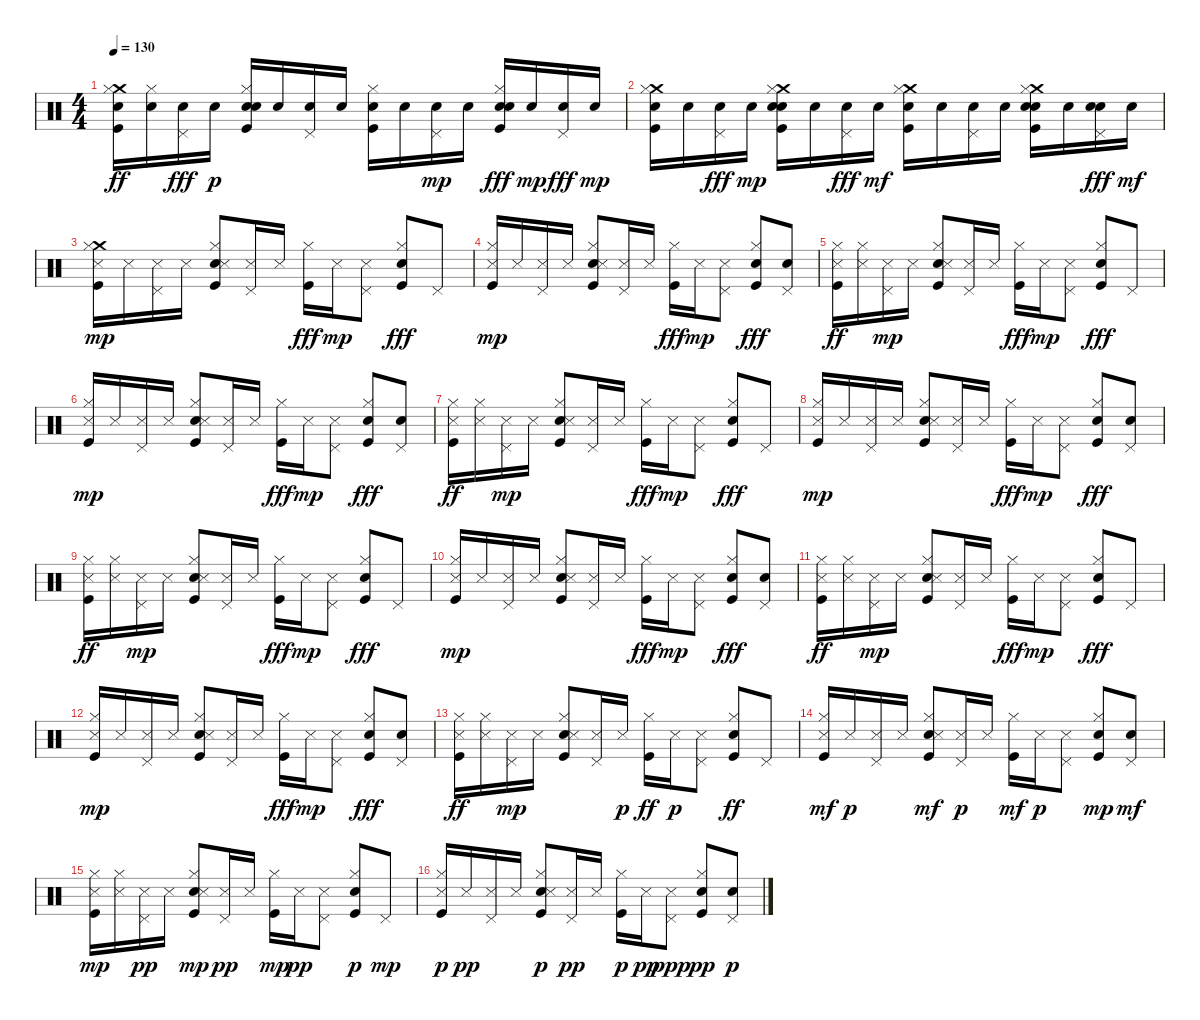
\track "" {instrument percussion}
\staff {score}
\articulation defaults
\ts (4 4)
\tempo 130
\clef neutral
\ks c
("Crash medium (hit)" "Kick (hit)" "Electric Snare (hit)" "Hi-Hat (closed)").16{dy ff} ("Electric Snare (hit)" "Hi-Hat (closed)").16 ("Electric Snare (hit)" "Pedal Hi-Hat (hit)").16{dy fff} "Electric Snare (hit)".16{dy p} ("Hand Clap (hit)" "Kick (hit)" "Electric Snare (hit)" "Hi-Hat (closed)").16 "Electric Snare (hit)".16 ("Pedal Hi-Hat (hit)" "Electric Snare (hit)").16 "Electric Snare (hit)".16 ("Kick (hit)" "Electric Snare (hit)" "Hi-Hat (closed)").16 "Electric Snare (hit)".16 ("Pedal Hi-Hat (hit)" "Electric Snare (hit)").16{dy mp} "Electric Snare (hit)".16 ("Hand Clap (hit)" "Electric Snare (hit)" "Kick (hit)" "Hi-Hat (closed)").16{dy fff} "Electric Snare (hit)".16{dy mp} ("Electric Snare (hit)" "Pedal Hi-Hat (hit)").16{dy fff} "Electric Snare (hit)".16{dy mp} |
("Kick (hit)" "Electric Snare (hit)" "Crash medium (hit)" "Hi-Hat (closed)").16 "Electric Snare (hit)".16 ("Electric Snare (hit)" "Pedal Hi-Hat (hit)").16{dy fff} "Electric Snare (hit)".16{dy mp} ("Hand Clap (hit)" "Kick (hit)" "Crash medium (hit)" "Electric Snare (hit)" "Hi-Hat (closed)").16 "Electric Snare (hit)".16 ("Electric Snare (hit)" "Pedal Hi-Hat (hit)").16{dy fff} "Electric Snare (hit)".16{dy mf} ("Kick (hit)" "Electric Snare (hit)" "Crash medium (hit)" "Hi-Hat (closed)").16 "Electric Snare (hit)".16 ("Pedal Hi-Hat (hit)" "Electric Snare (hit)").16 "Electric Snare (hit)".16 ("Hand Clap (hit)" "Kick (hit)" "Crash medium (hit)" "Electric Snare (hit)" "Hi-Hat (closed)").16 "Electric Snare (hit)".16 ("Hand Clap (hit)" "Electric Snare (hit)" "Pedal Hi-Hat (hit)").16{dy fff} "Electric Snare (hit)".16{dy mf} |
("Crash medium (hit)" "Kick (hit)" "Snare (side stick) 3" "Hi-Hat (closed)").16{dy mp} "Snare (side stick) 3".16 ("Pedal Hi-Hat (hit)" "Snare (side stick) 3").16 "Snare (side stick) 3".16 ("Hand Clap (hit)" "Kick (hit)" "Snare (side stick) 3" "Hi-Hat (closed)").8 ("Pedal Hi-Hat (hit)" "Snare (side stick) 3").16 "Snare (side stick) 3".16 ("Kick (hit)" "Hi-Hat (closed)").16{dy fff} "Snare (side stick) 3".16{dy mp} ("Pedal Hi-Hat (hit)" "Snare (side stick) 3").8 ("Hand Clap (hit)" "Kick (hit)" "Hi-Hat (closed)").8{dy fff} "Pedal Hi-Hat (hit)".8 |
("Kick (hit)" "Snare (side stick) 3" "Hi-Hat (closed)").16{dy mp} "Snare (side stick) 3".16 ("Pedal Hi-Hat (hit)" "Snare (side stick) 3").16 "Snare (side stick) 3".16 ("Hand Clap (hit)" "Kick (hit)" "Snare (side stick) 3" "Hi-Hat (closed)").8 ("Pedal Hi-Hat (hit)" "Snare (side stick) 3").16 "Snare (side stick) 3".16 ("Kick (hit)" "Hi-Hat (closed)").16{dy fff} "Snare (side stick) 3".16{dy mp} ("Pedal Hi-Hat (hit)" "Snare (side stick) 3").8 ("Hand Clap (hit)" "Kick (hit)" "Hi-Hat (closed)").8{dy fff} ("Hand Clap (hit)" "Pedal Hi-Hat (hit)").8 |
("Kick (hit)" "Snare (side stick) 3" "Hi-Hat (closed)").16{dy ff} ("Snare (side stick) 3" "Hi-Hat (closed)").16 ("Pedal Hi-Hat (hit)" "Snare (side stick) 3").16{dy mp} "Snare (side stick) 3".16 ("Hand Clap (hit)" "Kick (hit)" "Snare (side stick) 3" "Hi-Hat (closed)").8 ("Pedal Hi-Hat (hit)" "Snare (side stick) 3").16 "Snare (side stick) 3".16 ("Kick (hit)" "Hi-Hat (closed)").16{dy fff} "Snare (side stick) 3".16{dy mp} ("Pedal Hi-Hat (hit)" "Snare (side stick) 3").8 ("Hand Clap (hit)" "Kick (hit)" "Hi-Hat (closed)").8{dy fff} "Pedal Hi-Hat (hit)".8 |
("Kick (hit)" "Snare (side stick) 3" "Hi-Hat (closed)").16{dy mp} "Snare (side stick) 3".16 ("Pedal Hi-Hat (hit)" "Snare (side stick) 3").16 "Snare (side stick) 3".16 ("Hand Clap (hit)" "Kick (hit)" "Snare (side stick) 3" "Hi-Hat (closed)").8 ("Pedal Hi-Hat (hit)" "Snare (side stick) 3").16 "Snare (side stick) 3".16 ("Kick (hit)" "Hi-Hat (closed)").16{dy fff} "Snare (side stick) 3".16{dy mp} ("Pedal Hi-Hat (hit)" "Snare (side stick) 3").8 ("Hand Clap (hit)" "Kick (hit)" "Hi-Hat (closed)").8{dy fff} ("Hand Clap (hit)" "Pedal Hi-Hat (hit)").8 |
("Kick (hit)" "Snare (side stick) 3" "Hi-Hat (closed)").16{dy ff} ("Snare (side stick) 3" "Hi-Hat (closed)").16 ("Pedal Hi-Hat (hit)" "Snare (side stick) 3").16{dy mp} "Snare (side stick) 3".16 ("Hand Clap (hit)" "Kick (hit)" "Snare (side stick) 3" "Hi-Hat (closed)").8 ("Pedal Hi-Hat (hit)" "Snare (side stick) 3").16 "Snare (side stick) 3".16 ("Kick (hit)" "Hi-Hat (closed)").16{dy fff} "Snare (side stick) 3".16{dy mp} ("Pedal Hi-Hat (hit)" "Snare (side stick) 3").8 ("Hand Clap (hit)" "Kick (hit)" "Hi-Hat (closed)").8{dy fff} "Pedal Hi-Hat (hit)".8 |
("Kick (hit)" "Snare (side stick) 3" "Hi-Hat (closed)").16{dy mp} "Snare (side stick) 3".16 ("Pedal Hi-Hat (hit)" "Snare (side stick) 3").16 "Snare (side stick) 3".16 ("Hand Clap (hit)" "Kick (hit)" "Snare (side stick) 3" "Hi-Hat (closed)").8 ("Pedal Hi-Hat (hit)" "Snare (side stick) 3").16 "Snare (side stick) 3".16 ("Kick (hit)" "Hi-Hat (closed)").16{dy fff} "Snare (side stick) 3".16{dy mp} ("Pedal Hi-Hat (hit)" "Snare (side stick) 3").8 ("Hand Clap (hit)" "Kick (hit)" "Hi-Hat (closed)").8{dy fff} ("Hand Clap (hit)" "Pedal Hi-Hat (hit)").8 |
("Kick (hit)" "Snare (side stick) 3" "Hi-Hat (closed)").16{dy ff} ("Snare (side stick) 3" "Hi-Hat (closed)").16 ("Pedal Hi-Hat (hit)" "Snare (side stick) 3").16{dy mp} "Snare (side stick) 3".16 ("Hand Clap (hit)" "Kick (hit)" "Snare (side stick) 3" "Hi-Hat (closed)").8 ("Pedal Hi-Hat (hit)" "Snare (side stick) 3").16 "Snare (side stick) 3".16 ("Kick (hit)" "Hi-Hat (closed)").16{dy fff} "Snare (side stick) 3".16{dy mp} ("Pedal Hi-Hat (hit)" "Snare (side stick) 3").8 ("Hand Clap (hit)" "Kick (hit)" "Hi-Hat (closed)").8{dy fff} "Pedal Hi-Hat (hit)".8 |
("Kick (hit)" "Snare (side stick) 3" "Hi-Hat (closed)").16{dy mp} "Snare (side stick) 3".16 ("Pedal Hi-Hat (hit)" "Snare (side stick) 3").16 "Snare (side stick) 3".16 ("Hand Clap (hit)" "Kick (hit)" "Snare (side stick) 3" "Hi-Hat (closed)").8 ("Pedal Hi-Hat (hit)" "Snare (side stick) 3").16 "Snare (side stick) 3".16 ("Kick (hit)" "Hi-Hat (closed)").16{dy fff} "Snare (side stick) 3".16{dy mp} ("Pedal Hi-Hat (hit)" "Snare (side stick) 3").8 ("Hand Clap (hit)" "Kick (hit)" "Hi-Hat (closed)").8{dy fff} ("Hand Clap (hit)" "Pedal Hi-Hat (hit)").8 |
("Kick (hit)" "Snare (side stick) 3" "Hi-Hat (closed)").16{dy ff} ("Snare (side stick) 3" "Hi-Hat (closed)").16 ("Pedal Hi-Hat (hit)" "Snare (side stick) 3").16{dy mp} "Snare (side stick) 3".16 ("Hand Clap (hit)" "Kick (hit)" "Snare (side stick) 3" "Hi-Hat (closed)").8 ("Pedal Hi-Hat (hit)" "Snare (side stick) 3").16 "Snare (side stick) 3".16 ("Kick (hit)" "Hi-Hat (closed)").16{dy fff} "Snare (side stick) 3".16{dy mp} ("Pedal Hi-Hat (hit)" "Snare (side stick) 3").8 ("Hand Clap (hit)" "Kick (hit)" "Hi-Hat (closed)").8{dy fff} "Pedal Hi-Hat (hit)".8 |
("Kick (hit)" "Snare (side stick) 3" "Hi-Hat (closed)").16{dy mp} "Snare (side stick) 3".16 ("Pedal Hi-Hat (hit)" "Snare (side stick) 3").16 "Snare (side stick) 3".16 ("Hand Clap (hit)" "Kick (hit)" "Snare (side stick) 3" "Hi-Hat (closed)").8 ("Pedal Hi-Hat (hit)" "Snare (side stick) 3").16 "Snare (side stick) 3".16 ("Kick (hit)" "Hi-Hat (closed)").16{dy fff} "Snare (side stick) 3".16{dy mp} ("Pedal Hi-Hat (hit)" "Snare (side stick) 3").8 ("Hand Clap (hit)" "Kick (hit)" "Hi-Hat (closed)").8{dy fff} ("Hand Clap (hit)" "Pedal Hi-Hat (hit)").8 |
("Kick (hit)" "Snare (side stick) 3" "Hi-Hat (closed)").16{dy ff} ("Snare (side stick) 3" "Hi-Hat (closed)").16 ("Pedal Hi-Hat (hit)" "Snare (side stick) 3").16{dy mp} "Snare (side stick) 3".16 ("Hand Clap (hit)" "Kick (hit)" "Snare (side stick) 3" "Hi-Hat (closed)").8 ("Pedal Hi-Hat (hit)" "Snare (side stick) 3").16 "Snare (side stick) 3".16{dy p} ("Kick (hit)" "Hi-Hat (closed)").16{dy ff} "Snare (side stick) 3".16{dy p} ("Pedal Hi-Hat (hit)" "Snare (side stick) 3").8 ("Hand Clap (hit)" "Kick (hit)" "Hi-Hat (closed)").8{dy ff} "Pedal Hi-Hat (hit)".8 |
("Kick (hit)" "Snare (side stick) 3" "Hi-Hat (closed)").16{dy mf} "Snare (side stick) 3".16{dy p} ("Pedal Hi-Hat (hit)" "Snare (side stick) 3").16 "Snare (side stick) 3".16 ("Hand Clap (hit)" "Kick (hit)" "Snare (side stick) 3" "Hi-Hat (closed)").8{dy mf} ("Pedal Hi-Hat (hit)" "Snare (side stick) 3").16{dy p} "Snare (side stick) 3".16 ("Kick (hit)" "Hi-Hat (closed)").16{dy mf} "Snare (side stick) 3".16{dy p} ("Pedal Hi-Hat (hit)" "Snare (side stick) 3").8 ("Hand Clap (hit)" "Kick (hit)" "Hi-Hat (closed)").8{dy mp} ("Hand Clap (hit)" "Pedal Hi-Hat (hit)").8{dy mf} |
("Kick (hit)" "Snare (side stick) 3" "Hi-Hat (closed)").16{dy mp} ("Snare (side stick) 3" "Hi-Hat (closed)").16 ("Pedal Hi-Hat (hit)" "Snare (side stick) 3").16{dy pp} "Snare (side stick) 3".16 ("Hand Clap (hit)" "Kick (hit)" "Snare (side stick) 3" "Hi-Hat (closed)").8{dy mp} ("Pedal Hi-Hat (hit)" "Snare (side stick) 3").16{dy pp} "Snare (side stick) 3".16 ("Kick (hit)" "Hi-Hat (closed)").16{dy mp} "Snare (side stick) 3".16{dy pp} ("Pedal Hi-Hat (hit)" "Snare (side stick) 3").8 ("Hand Clap (hit)" "Kick (hit)" "Hi-Hat (closed)").8{dy p} "Pedal Hi-Hat (hit)".8{dy mp} |
("Kick (hit)" "Snare (side stick) 3" "Hi-Hat (closed)").16{dy p} "Snare (side stick) 3".16{dy pp} ("Pedal Hi-Hat (hit)" "Snare (side stick) 3").16 "Snare (side stick) 3".16 ("Hand Clap (hit)" "Kick (hit)" "Snare (side stick) 3" "Hi-Hat (closed)").8{dy p} ("Pedal Hi-Hat (hit)" "Snare (side stick) 3").16{dy pp} "Snare (side stick) 3".16 ("Kick (hit)" "Hi-Hat (closed)").16{dy p} "Snare (side stick) 3".16{dy pp} ("Pedal Hi-Hat (hit)" "Snare (side stick) 3").8{dy ppp} ("Hand Clap (hit)" "Kick (hit)" "Hi-Hat (closed)").8{dy pp} ("Hand Clap (hit)" "Pedal Hi-Hat (hit)").8{dy p}
